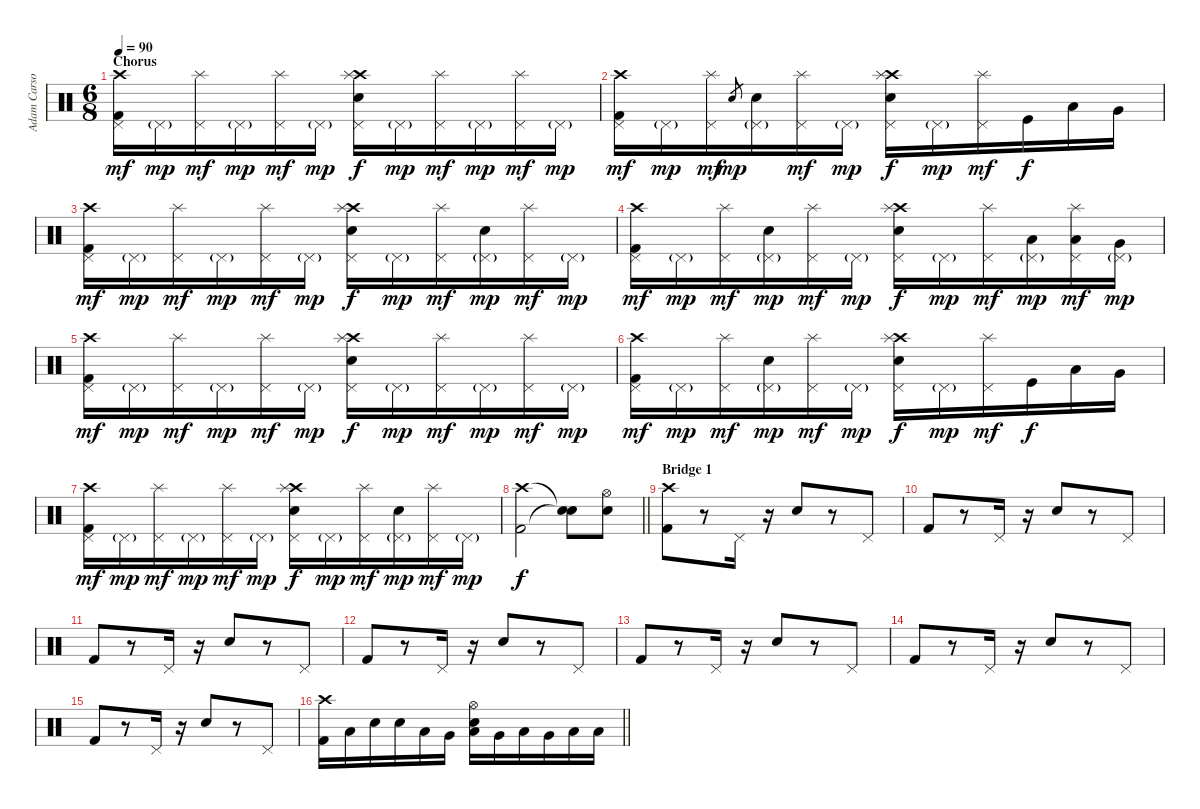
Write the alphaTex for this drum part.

\track ("Adam Carson" "Adam Carso") {instrument percussion}
\staff {score}
\articulation defaults
\ts (6 8)
\section ("" "Chorus")
\tempo 90
\clef neutral
\ks c
("Crash high (hit)" "Pedal Hi-Hat (hit)" "Kick (hit) 2").16{dy mf} "Pedal Hi-Hat (hit)"{g}.16{dy mp} ("Pedal Hi-Hat (hit)" "Splash (hit)").16{dy mf} "Pedal Hi-Hat (hit)"{g}.16{dy mp} ("Pedal Hi-Hat (hit)" "Splash (hit)").16{dy mf} "Pedal Hi-Hat (hit)"{g}.16{dy mp} ("Crash high (hit)" "Pedal Hi-Hat (hit)" "Splash (hit)" "Snare (hit) 2").16{dy f} "Pedal Hi-Hat (hit)"{g}.16{dy mp} ("Pedal Hi-Hat (hit)" "Splash (hit)").16{dy mf} "Pedal Hi-Hat (hit)"{g}.16{dy mp} ("Pedal Hi-Hat (hit)" "Splash (hit)").16{dy mf} "Pedal Hi-Hat (hit)"{g}.16{dy mp} |
("Crash high (hit)" "Pedal Hi-Hat (hit)" "Kick (hit) 2").16{dy mf} "Pedal Hi-Hat (hit)"{g}.16{dy mp} ("Pedal Hi-Hat (hit)" "Splash (hit)").16{dy mf} "Snare (hit) 2".8{gr dy mp} ("Pedal Hi-Hat (hit)"{g} "Snare (hit) 2").16 ("Pedal Hi-Hat (hit)" "Splash (hit)").16{dy mf} "Pedal Hi-Hat (hit)"{g}.16{dy mp} ("Crash high (hit)" "Pedal Hi-Hat (hit)" "Splash (hit)" "Snare (hit) 2").16{dy f} "Pedal Hi-Hat (hit)"{g}.16{dy mp} ("Pedal Hi-Hat (hit)" "Splash (hit)").16{dy mf} "Kick (hit)".16{dy f} "Low Floor Tom (hit)".16 "Very Low Tom (hit)".16 |
("Crash high (hit)" "Pedal Hi-Hat (hit)" "Kick (hit) 2").16{dy mf} "Pedal Hi-Hat (hit)"{g}.16{dy mp} ("Pedal Hi-Hat (hit)" "Splash (hit)").16{dy mf} "Pedal Hi-Hat (hit)"{g}.16{dy mp} ("Pedal Hi-Hat (hit)" "Splash (hit)").16{dy mf} "Pedal Hi-Hat (hit)"{g}.16{dy mp} ("Crash high (hit)" "Pedal Hi-Hat (hit)" "Splash (hit)" "Snare (hit) 2").16{dy f} "Pedal Hi-Hat (hit)"{g}.16{dy mp} ("Pedal Hi-Hat (hit)" "Splash (hit)").16{dy mf} ("Pedal Hi-Hat (hit)"{g} "Snare (hit) 2").16{dy mp} ("Pedal Hi-Hat (hit)" "Splash (hit)").16{dy mf} "Pedal Hi-Hat (hit)"{g}.16{dy mp} |
("Crash high (hit)" "Pedal Hi-Hat (hit)" "Kick (hit) 2").16{dy mf} "Pedal Hi-Hat (hit)"{g}.16{dy mp} ("Pedal Hi-Hat (hit)" "Splash (hit)").16{dy mf} ("Pedal Hi-Hat (hit)"{g} "Snare (hit) 2").16{dy mp} ("Pedal Hi-Hat (hit)" "Splash (hit)").16{dy mf} "Pedal Hi-Hat (hit)"{g}.16{dy mp} ("Crash high (hit)" "Pedal Hi-Hat (hit)" "Splash (hit)" "Snare (hit) 2").16{dy f} "Pedal Hi-Hat (hit)"{g}.16{dy mp} ("Pedal Hi-Hat (hit)" "Splash (hit)").16{dy mf} ("Pedal Hi-Hat (hit)"{g} "Low Tom (hit)").16{dy mp} ("Pedal Hi-Hat (hit)" "Splash (hit)" "Low Floor Tom (hit)").16{dy mf} ("Pedal Hi-Hat (hit)"{g} "Very Low Tom (hit)").16{dy mp} |
("Crash high (hit)" "Pedal Hi-Hat (hit)" "Kick (hit) 2").16{dy mf} "Pedal Hi-Hat (hit)"{g}.16{dy mp} ("Pedal Hi-Hat (hit)" "Splash (hit)").16{dy mf} "Pedal Hi-Hat (hit)"{g}.16{dy mp} ("Pedal Hi-Hat (hit)" "Splash (hit)").16{dy mf} "Pedal Hi-Hat (hit)"{g}.16{dy mp} ("Crash high (hit)" "Pedal Hi-Hat (hit)" "Splash (hit)" "Snare (hit) 2").16{dy f} "Pedal Hi-Hat (hit)"{g}.16{dy mp} ("Pedal Hi-Hat (hit)" "Splash (hit)").16{dy mf} "Pedal Hi-Hat (hit)"{g}.16{dy mp} ("Pedal Hi-Hat (hit)" "Splash (hit)").16{dy mf} "Pedal Hi-Hat (hit)"{g}.16{dy mp} |
("Crash high (hit)" "Pedal Hi-Hat (hit)" "Kick (hit) 2").16{dy mf} "Pedal Hi-Hat (hit)"{g}.16{dy mp} ("Pedal Hi-Hat (hit)" "Splash (hit)").16{dy mf} ("Pedal Hi-Hat (hit)"{g} "Snare (hit) 2").16{dy mp} ("Pedal Hi-Hat (hit)" "Splash (hit)").16{dy mf} "Pedal Hi-Hat (hit)"{g}.16{dy mp} ("Crash high (hit)" "Pedal Hi-Hat (hit)" "Splash (hit)" "Snare (hit) 2").16{dy f} "Pedal Hi-Hat (hit)"{g}.16{dy mp} ("Pedal Hi-Hat (hit)" "Splash (hit)").16{dy mf} "Kick (hit)".16{dy f} "Low Floor Tom (hit)".16 "Very Low Tom (hit)".16 |
("Crash high (hit)" "Pedal Hi-Hat (hit)" "Kick (hit) 2").16{dy mf} "Pedal Hi-Hat (hit)"{g}.16{dy mp} ("Pedal Hi-Hat (hit)" "Splash (hit)").16{dy mf} "Pedal Hi-Hat (hit)"{g}.16{dy mp} ("Pedal Hi-Hat (hit)" "Splash (hit)").16{dy mf} "Pedal Hi-Hat (hit)"{g}.16{dy mp} ("Crash high (hit)" "Pedal Hi-Hat (hit)" "Splash (hit)" "Snare (hit) 2").16{dy f} "Pedal Hi-Hat (hit)"{g}.16{dy mp} ("Pedal Hi-Hat (hit)" "Splash (hit)").16{dy mf} ("Pedal Hi-Hat (hit)"{g} "Snare (hit) 2").16{dy mp} ("Pedal Hi-Hat (hit)" "Splash (hit)").16{dy mf} "Pedal Hi-Hat (hit)"{g}.16{dy mp} |
\barLineRight lightlight
("Crash high (hit)" "Kick (hit) 2").2{dy f} ("Snare (hit)"{t} "Snare (hit)"{t}).8 ("Snare (hit) 2" "Hi-Hat (open)").8 |
\section ("" "Bridge 1")
("Crash high (hit)" "Kick (hit) 2").8 r.8 "Pedal Hi-Hat (hit)".16 r.16 "Snare (hit) 2".8 r.8 "Pedal Hi-Hat (hit)".8 |
"Kick (hit) 2".8 r.8 "Pedal Hi-Hat (hit)".16 r.16 "Snare (hit) 2".8 r.8 "Pedal Hi-Hat (hit)".8 |
"Kick (hit) 2".8 r.8 "Pedal Hi-Hat (hit)".16 r.16 "Snare (hit) 2".8 r.8 "Pedal Hi-Hat (hit)".8 |
"Kick (hit) 2".8 r.8 "Pedal Hi-Hat (hit)".16 r.16 "Snare (hit) 2".8 r.8 "Pedal Hi-Hat (hit)".8 |
"Kick (hit) 2".8 r.8 "Pedal Hi-Hat (hit)".16 r.16 "Snare (hit) 2".8 r.8 "Pedal Hi-Hat (hit)".8 |
"Kick (hit) 2".8 r.8 "Pedal Hi-Hat (hit)".16 r.16 "Snare (hit) 2".8 r.8 "Pedal Hi-Hat (hit)".8 |
"Kick (hit) 2".8 r.8 "Pedal Hi-Hat (hit)".16 r.16 "Snare (hit) 2".8 r.8 "Pedal Hi-Hat (hit)".8 |
\barLineRight lightlight
("Kick (hit) 2" "Crash high (hit)").16 "Low Floor Tom (hit)".16 "Snare (hit) 2".16 "Snare (hit) 2".16 "Low Floor Tom (hit)".16 "Very Low Tom (hit)".16 ("Hi-Hat (open)" "Snare (hit) 2" "Low Tom (hit)").16 "Very Low Tom (hit)".16 "Low Floor Tom (hit)".16 "Very Low Tom (hit)".16 "Low Floor Tom (hit)".16 "Low Tom (hit)".16
